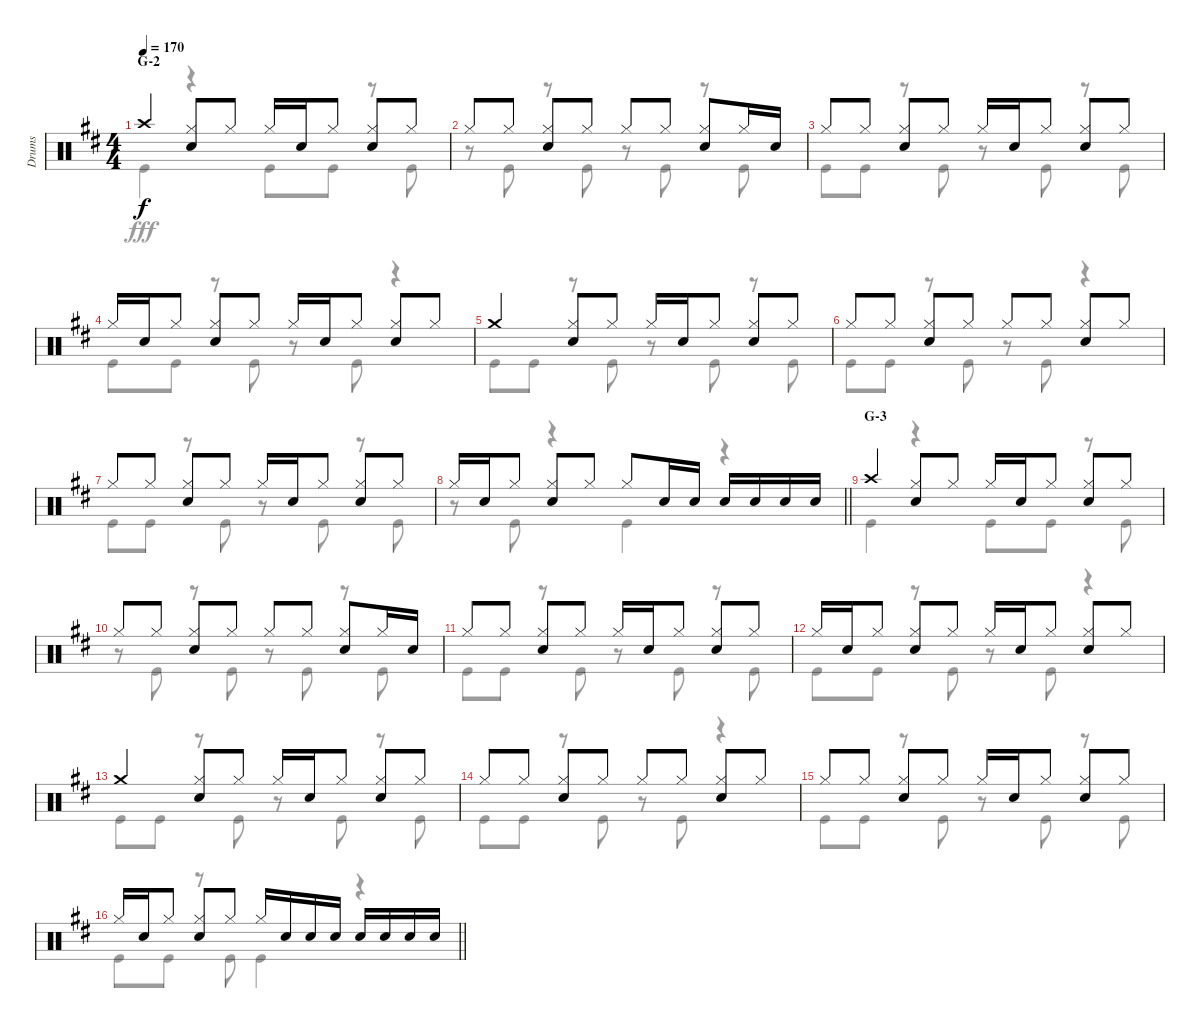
\track ("Drums" "Drums") {instrument percussion}
\staff {score}
\articulation defaults
\voice
\ts (4 4)
\section ("" "G-2")
\tempo 170
\clef neutral
\ks d "Crash high (hit)".4{dy f}
("Hi-Hat (closed)" "Snare (hit) 2").8 "Hi-Hat (closed)".8 "Hi-Hat (closed)".16 "Snare (hit) 2".16 "Hi-Hat (closed)".8 ("Hi-Hat (closed)" "Snare (hit) 2").8 "Hi-Hat (closed)".8 |
"Hi-Hat (closed)".8 "Hi-Hat (closed)".8 ("Hi-Hat (closed)" "Snare (hit) 2").8 "Hi-Hat (closed)".8 "Hi-Hat (closed)".8 "Hi-Hat (closed)".8 ("Hi-Hat (closed)" "Snare (hit) 2").8 "Hi-Hat (closed)".16 "Snare (hit) 2".16 |
"Hi-Hat (closed)".8 "Hi-Hat (closed)".8 ("Hi-Hat (closed)" "Snare (hit) 2").8 "Hi-Hat (closed)".8 "Hi-Hat (closed)".16 "Snare (hit) 2".16 "Hi-Hat (closed)".8 ("Hi-Hat (closed)" "Snare (hit) 2").8 "Hi-Hat (closed)".8 |
"Hi-Hat (closed)".16 "Snare (hit) 2".16 "Hi-Hat (closed)".8 ("Hi-Hat (closed)" "Snare (hit) 2").8 "Hi-Hat (closed)".8 "Hi-Hat (closed)".16 "Snare (hit) 2".16 "Hi-Hat (closed)".8 ("Hi-Hat (closed)" "Snare (hit) 2").8 "Hi-Hat (closed)".8 |
"Crash medium (hit)".4 ("Hi-Hat (closed)" "Snare (hit) 2").8 "Hi-Hat (closed)".8 "Hi-Hat (closed)".16 "Snare (hit) 2".16 "Hi-Hat (closed)".8 ("Hi-Hat (closed)" "Snare (hit) 2").8 "Hi-Hat (closed)".8 |
"Hi-Hat (closed)".8 "Hi-Hat (closed)".8 ("Hi-Hat (closed)" "Snare (hit) 2").8 "Hi-Hat (closed)".8 "Hi-Hat (closed)".8 "Hi-Hat (closed)".8 ("Hi-Hat (closed)" "Snare (hit) 2").8 "Hi-Hat (closed)".8 |
"Hi-Hat (closed)".8 "Hi-Hat (closed)".8 ("Hi-Hat (closed)" "Snare (hit) 2").8 "Hi-Hat (closed)".8 "Hi-Hat (closed)".16 "Snare (hit) 2".16 "Hi-Hat (closed)".8 ("Hi-Hat (closed)" "Snare (hit) 2").8 "Hi-Hat (closed)".8 |
\barLineRight lightlight "Hi-Hat (closed)".16 "Snare (hit) 2".16 "Hi-Hat (closed)".8
("Hi-Hat (closed)" "Snare (hit) 2").8 "Hi-Hat (closed)".8 "Hi-Hat (closed)".8 "Snare (hit) 2".16 "Snare (hit) 2".16 "Snare (hit) 2".16 "Snare (hit) 2".16 "Snare (hit) 2".16 "Snare (hit) 2".16 |
\section ("" "G-3")
"Crash high (hit)".4 ("Hi-Hat (closed)" "Snare (hit) 2").8 "Hi-Hat (closed)".8 "Hi-Hat (closed)".16 "Snare (hit) 2".16 "Hi-Hat (closed)".8 ("Hi-Hat (closed)" "Snare (hit) 2").8 "Hi-Hat (closed)".8 |
"Hi-Hat (closed)".8 "Hi-Hat (closed)".8 ("Hi-Hat (closed)" "Snare (hit) 2").8 "Hi-Hat (closed)".8 "Hi-Hat (closed)".8 "Hi-Hat (closed)".8 ("Hi-Hat (closed)" "Snare (hit) 2").8 "Hi-Hat (closed)".16 "Snare (hit) 2".16 |
"Hi-Hat (closed)".8 "Hi-Hat (closed)".8 ("Hi-Hat (closed)" "Snare (hit) 2").8 "Hi-Hat (closed)".8 "Hi-Hat (closed)".16 "Snare (hit) 2".16 "Hi-Hat (closed)".8 ("Hi-Hat (closed)" "Snare (hit) 2").8 "Hi-Hat (closed)".8 |
"Hi-Hat (closed)".16 "Snare (hit) 2".16 "Hi-Hat (closed)".8 ("Hi-Hat (closed)" "Snare (hit) 2").8 "Hi-Hat (closed)".8 "Hi-Hat (closed)".16 "Snare (hit) 2".16 "Hi-Hat (closed)".8 ("Hi-Hat (closed)" "Snare (hit) 2").8 "Hi-Hat (closed)".8 |
"Crash medium (hit)".4 ("Hi-Hat (closed)" "Snare (hit) 2").8 "Hi-Hat (closed)".8 "Hi-Hat (closed)".16 "Snare (hit) 2".16 "Hi-Hat (closed)".8 ("Hi-Hat (closed)" "Snare (hit) 2").8 "Hi-Hat (closed)".8 |
"Hi-Hat (closed)".8 "Hi-Hat (closed)".8 ("Hi-Hat (closed)" "Snare (hit) 2").8 "Hi-Hat (closed)".8 "Hi-Hat (closed)".8 "Hi-Hat (closed)".8 ("Hi-Hat (closed)" "Snare (hit) 2").8 "Hi-Hat (closed)".8 |
"Hi-Hat (closed)".8 "Hi-Hat (closed)".8 ("Hi-Hat (closed)" "Snare (hit) 2").8 "Hi-Hat (closed)".8 "Hi-Hat (closed)".16 "Snare (hit) 2".16 "Hi-Hat (closed)".8 ("Hi-Hat (closed)" "Snare (hit) 2").8 "Hi-Hat (closed)".8 |
\barLineRight lightlight "Hi-Hat (closed)".16 "Snare (hit) 2".16 "Hi-Hat (closed)".8
("Hi-Hat (closed)" "Snare (hit) 2").8 "Hi-Hat (closed)".8 "Hi-Hat (closed)".16 "Snare (hit) 2".16 "Snare (hit) 2".16 "Snare (hit) 2".16 "Snare (hit) 2".16 "Snare (hit) 2".16 "Snare (hit) 2".16 "Snare (hit) 2".16
\voice
\clef neutral
\ottava regular
\simile none
\ks d "Kick (hit)".4{dy fff}
r.4 "Kick (hit)".8 "Kick (hit)".8 r.8 "Kick (hit)".8 |
r.8 "Kick (hit)".8 r.8 "Kick (hit)".8 r.8 "Kick (hit)".8 r.8 "Kick (hit)".8 |
"Kick (hit)".8 "Kick (hit)".8 r.8 "Kick (hit)".8 r.8 "Kick (hit)".8 r.8 "Kick (hit)".8 |
"Kick (hit)".8 "Kick (hit)".8 r.8 "Kick (hit)".8 r.8 "Kick (hit)".8 r.4 |
"Kick (hit)".8 "Kick (hit)".8 r.8 "Kick (hit)".8 r.8 "Kick (hit)".8 r.8 "Kick (hit)".8 |
"Kick (hit)".8 "Kick (hit)".8 r.8 "Kick (hit)".8 r.8 "Kick (hit)".8 r.4 |
"Kick (hit)".8 "Kick (hit)".8 r.8 "Kick (hit)".8 r.8 "Kick (hit)".8 r.8 "Kick (hit)".8 |
\barLineRight lightlight
r.8 "Kick (hit)".8 r.4 "Kick (hit)".4 r.4 |
"Kick (hit)".4 r.4 "Kick (hit)".8 "Kick (hit)".8 r.8 "Kick (hit)".8 |
r.8 "Kick (hit)".8 r.8 "Kick (hit)".8 r.8 "Kick (hit)".8 r.8 "Kick (hit)".8 |
"Kick (hit)".8 "Kick (hit)".8 r.8 "Kick (hit)".8 r.8 "Kick (hit)".8 r.8 "Kick (hit)".8 |
"Kick (hit)".8 "Kick (hit)".8 r.8 "Kick (hit)".8 r.8 "Kick (hit)".8 r.4 |
"Kick (hit)".8 "Kick (hit)".8 r.8 "Kick (hit)".8 r.8 "Kick (hit)".8 r.8 "Kick (hit)".8 |
"Kick (hit)".8 "Kick (hit)".8 r.8 "Kick (hit)".8 r.8 "Kick (hit)".8 r.4 |
"Kick (hit)".8 "Kick (hit)".8 r.8 "Kick (hit)".8 r.8 "Kick (hit)".8 r.8 "Kick (hit)".8 |
\barLineRight lightlight "Kick (hit)".8 "Kick (hit)".8
r.8 "Kick (hit)".8 "Kick (hit)".4 r.4
